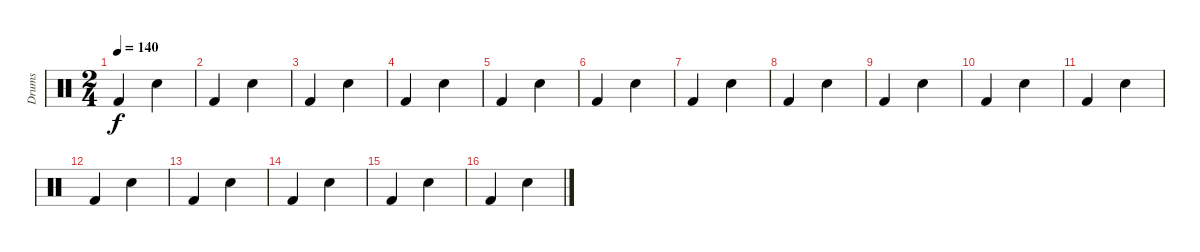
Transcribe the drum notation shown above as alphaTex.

\track ("Drums" "Drums") {instrument percussion}
\staff {score}
\articulation defaults
\ts (2 4)
\tempo 140
\clef neutral
\ks c "Kick (hit) 2".4{dy f} "Snare (hit) 2".4
|
"Kick (hit) 2".4 "Snare (hit) 2".4 |
"Kick (hit) 2".4 "Snare (hit) 2".4 |
"Kick (hit) 2".4 "Snare (hit) 2".4 |
"Kick (hit) 2".4 "Snare (hit) 2".4 |
"Kick (hit) 2".4 "Snare (hit) 2".4 |
"Kick (hit) 2".4 "Snare (hit) 2".4 |
"Kick (hit) 2".4 "Snare (hit) 2".4 |
"Kick (hit) 2".4 "Snare (hit) 2".4 |
"Kick (hit) 2".4 "Snare (hit) 2".4 |
"Kick (hit) 2".4 "Snare (hit) 2".4 |
"Kick (hit) 2".4 "Snare (hit) 2".4 |
"Kick (hit) 2".4 "Snare (hit) 2".4 |
"Kick (hit) 2".4 "Snare (hit) 2".4 |
"Kick (hit) 2".4 "Snare (hit) 2".4 |
"Kick (hit) 2".4 "Snare (hit) 2".4
